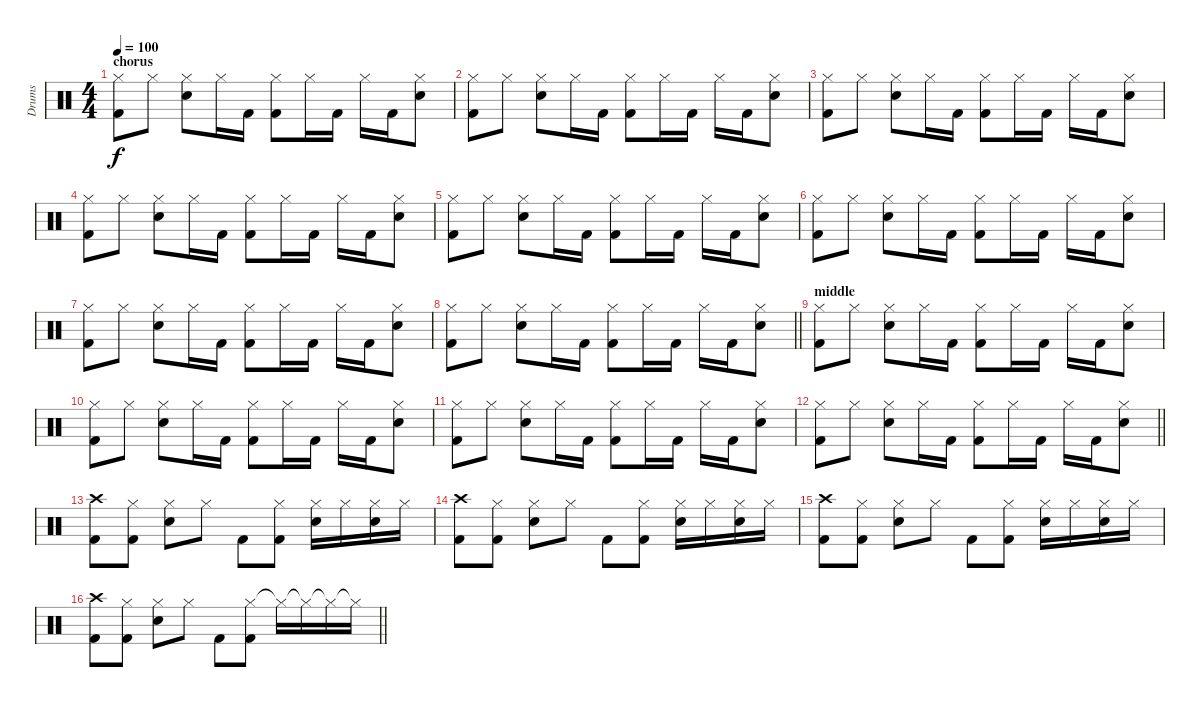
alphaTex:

\track ("Drums" "Drums") {instrument percussion}
\staff {score}
\articulation defaults
\ts (4 4)
\section ("" "chorus")
\tempo 100
\clef neutral
\ks c
("Hi-Hat (closed)" "Kick (hit) 2").8{dy f} "Hi-Hat (closed)".8 ("Hi-Hat (closed)" "Snare (hit) 2").8 "Hi-Hat (closed)".16 "Kick (hit) 2".16 ("Hi-Hat (closed)" "Kick (hit) 2").8 "Hi-Hat (closed)".16 "Kick (hit) 2".16 "Hi-Hat (closed)".16 "Kick (hit) 2".16 ("Hi-Hat (closed)" "Snare (hit) 2").8 |
("Hi-Hat (closed)" "Kick (hit) 2").8 "Hi-Hat (closed)".8 ("Hi-Hat (closed)" "Snare (hit) 2").8 "Hi-Hat (closed)".16 "Kick (hit) 2".16 ("Hi-Hat (closed)" "Kick (hit) 2").8 "Hi-Hat (closed)".16 "Kick (hit) 2".16 "Hi-Hat (closed)".16 "Kick (hit) 2".16 ("Hi-Hat (closed)" "Snare (hit) 2").8 |
("Hi-Hat (closed)" "Kick (hit) 2").8 "Hi-Hat (closed)".8 ("Hi-Hat (closed)" "Snare (hit) 2").8 "Hi-Hat (closed)".16 "Kick (hit) 2".16 ("Hi-Hat (closed)" "Kick (hit) 2").8 "Hi-Hat (closed)".16 "Kick (hit) 2".16 "Hi-Hat (closed)".16 "Kick (hit) 2".16 ("Hi-Hat (closed)" "Snare (hit) 2").8 |
("Hi-Hat (closed)" "Kick (hit) 2").8 "Hi-Hat (closed)".8 ("Hi-Hat (closed)" "Snare (hit) 2").8 "Hi-Hat (closed)".16 "Kick (hit) 2".16 ("Hi-Hat (closed)" "Kick (hit) 2").8 "Hi-Hat (closed)".16 "Kick (hit) 2".16 "Hi-Hat (closed)".16 "Kick (hit) 2".16 ("Hi-Hat (closed)" "Snare (hit) 2").8 |
("Hi-Hat (closed)" "Kick (hit) 2").8 "Hi-Hat (closed)".8 ("Hi-Hat (closed)" "Snare (hit) 2").8 "Hi-Hat (closed)".16 "Kick (hit) 2".16 ("Hi-Hat (closed)" "Kick (hit) 2").8 "Hi-Hat (closed)".16 "Kick (hit) 2".16 "Hi-Hat (closed)".16 "Kick (hit) 2".16 ("Hi-Hat (closed)" "Snare (hit) 2").8 |
("Hi-Hat (closed)" "Kick (hit) 2").8 "Hi-Hat (closed)".8 ("Hi-Hat (closed)" "Snare (hit) 2").8 "Hi-Hat (closed)".16 "Kick (hit) 2".16 ("Hi-Hat (closed)" "Kick (hit) 2").8 "Hi-Hat (closed)".16 "Kick (hit) 2".16 "Hi-Hat (closed)".16 "Kick (hit) 2".16 ("Hi-Hat (closed)" "Snare (hit) 2").8 |
("Hi-Hat (closed)" "Kick (hit) 2").8 "Hi-Hat (closed)".8 ("Hi-Hat (closed)" "Snare (hit) 2").8 "Hi-Hat (closed)".16 "Kick (hit) 2".16 ("Hi-Hat (closed)" "Kick (hit) 2").8 "Hi-Hat (closed)".16 "Kick (hit) 2".16 "Hi-Hat (closed)".16 "Kick (hit) 2".16 ("Hi-Hat (closed)" "Snare (hit) 2").8 |
\barLineRight lightlight
("Hi-Hat (closed)" "Kick (hit) 2").8 "Hi-Hat (closed)".8 ("Hi-Hat (closed)" "Snare (hit) 2").8 "Hi-Hat (closed)".16 "Kick (hit) 2".16 ("Hi-Hat (closed)" "Kick (hit) 2").8 "Hi-Hat (closed)".16 "Kick (hit) 2".16 "Hi-Hat (closed)".16 "Kick (hit) 2".16 ("Hi-Hat (closed)" "Snare (hit) 2").8 |
\section ("" "middle")
("Hi-Hat (closed)" "Kick (hit) 2").8 "Hi-Hat (closed)".8 ("Hi-Hat (closed)" "Snare (hit) 2").8 "Hi-Hat (closed)".16 "Kick (hit) 2".16 ("Hi-Hat (closed)" "Kick (hit) 2").8 "Hi-Hat (closed)".16 "Kick (hit) 2".16 "Hi-Hat (closed)".16 "Kick (hit) 2".16 ("Hi-Hat (closed)" "Snare (hit) 2").8 |
("Hi-Hat (closed)" "Kick (hit) 2").8 "Hi-Hat (closed)".8 ("Hi-Hat (closed)" "Snare (hit) 2").8 "Hi-Hat (closed)".16 "Kick (hit) 2".16 ("Hi-Hat (closed)" "Kick (hit) 2").8 "Hi-Hat (closed)".16 "Kick (hit) 2".16 "Hi-Hat (closed)".16 "Kick (hit) 2".16 ("Hi-Hat (closed)" "Snare (hit) 2").8 |
("Hi-Hat (closed)" "Kick (hit) 2").8 "Hi-Hat (closed)".8 ("Hi-Hat (closed)" "Snare (hit) 2").8 "Hi-Hat (closed)".16 "Kick (hit) 2".16 ("Hi-Hat (closed)" "Kick (hit) 2").8 "Hi-Hat (closed)".16 "Kick (hit) 2".16 "Hi-Hat (closed)".16 "Kick (hit) 2".16 ("Hi-Hat (closed)" "Snare (hit) 2").8 |
\barLineRight lightlight
("Hi-Hat (closed)" "Kick (hit) 2").8 "Hi-Hat (closed)".8 ("Hi-Hat (closed)" "Snare (hit) 2").8 "Hi-Hat (closed)".16 "Kick (hit) 2".16 ("Hi-Hat (closed)" "Kick (hit) 2").8 "Hi-Hat (closed)".16 "Kick (hit) 2".16 "Hi-Hat (closed)".16 "Kick (hit) 2".16 ("Hi-Hat (closed)" "Snare (hit) 2").8 |
("Crash high (hit)" "Kick (hit) 2").8 ("Hi-Hat (closed)" "Kick (hit) 2").8 ("Hi-Hat (closed)" "Snare (hit) 2").8 "Hi-Hat (closed)".8 "Kick (hit) 2".8 ("Hi-Hat (closed)" "Kick (hit) 2").8 ("Hi-Hat (closed)" "Snare (hit) 2").16 "Hi-Hat (closed)".16 ("Hi-Hat (closed)" "Snare (hit) 2").16 "Hi-Hat (closed)".16 |
("Crash high (hit)" "Kick (hit) 2").8 ("Hi-Hat (closed)" "Kick (hit) 2").8 ("Hi-Hat (closed)" "Snare (hit) 2").8 "Hi-Hat (closed)".8 "Kick (hit) 2".8 ("Hi-Hat (closed)" "Kick (hit) 2").8 ("Hi-Hat (closed)" "Snare (hit) 2").16 "Hi-Hat (closed)".16 ("Hi-Hat (closed)" "Snare (hit) 2").16 "Hi-Hat (closed)".16 |
("Crash high (hit)" "Kick (hit) 2").8 ("Hi-Hat (closed)" "Kick (hit) 2").8 ("Hi-Hat (closed)" "Snare (hit) 2").8 "Hi-Hat (closed)".8 "Kick (hit) 2".8 ("Hi-Hat (closed)" "Kick (hit) 2").8 ("Hi-Hat (closed)" "Snare (hit) 2").16 "Hi-Hat (closed)".16 ("Hi-Hat (closed)" "Snare (hit) 2").16 "Hi-Hat (closed)".16 |
\barLineRight lightlight
("Crash high (hit)" "Kick (hit) 2").8 ("Hi-Hat (closed)" "Kick (hit) 2").8 ("Hi-Hat (closed)" "Snare (hit) 2").8 "Hi-Hat (closed)".8 "Kick (hit) 2".8 ("Hi-Hat (closed)" "Kick (hit) 2").8 "Hi-Hat (closed)"{t}.16 "Hi-Hat (closed)"{t}.16 "Hi-Hat (closed)"{t}.16 "Hi-Hat (closed)"{t}.16
